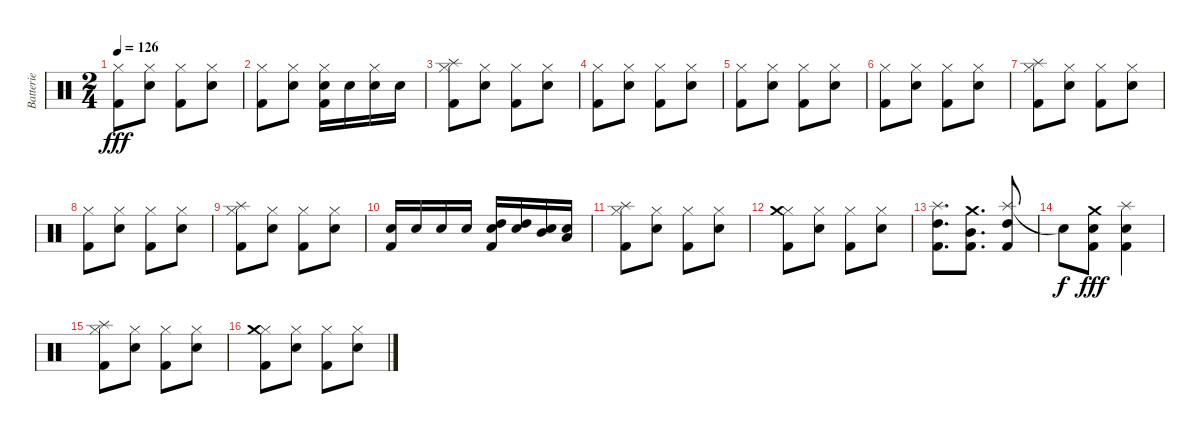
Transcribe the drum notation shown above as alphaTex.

\track ("Batterie" "Batterie") {instrument percussion}
\staff {score}
\articulation defaults
\ts (2 4)
\tempo 126
\clef neutral
\ks c
("Hi-Hat (closed)" "Kick (hit) 2").8{dy fff} ("Hi-Hat (closed)" "Electric Snare (hit)").8 ("Hi-Hat (closed)" "Kick (hit) 2").8 ("Hi-Hat (closed)" "Electric Snare (hit)").8 |
("Hi-Hat (closed)" "Kick (hit) 2").8 ("Hi-Hat (closed)" "Electric Snare (hit)").8 ("Electric Snare (hit)" "Hi-Hat (closed)" "Kick (hit) 2").16 "Electric Snare (hit)".16 ("Electric Snare (hit)" "Hi-Hat (closed)").16 "Electric Snare (hit)".16 |
("Splash (hit)" "Hi-Hat (closed)" "Kick (hit) 2").8 ("Hi-Hat (closed)" "Electric Snare (hit)").8 ("Hi-Hat (closed)" "Kick (hit) 2").8 ("Hi-Hat (closed)" "Electric Snare (hit)").8 |
("Hi-Hat (closed)" "Kick (hit) 2").8 ("Hi-Hat (closed)" "Electric Snare (hit)").8 ("Hi-Hat (closed)" "Kick (hit) 2").8 ("Hi-Hat (closed)" "Electric Snare (hit)").8 |
("Hi-Hat (closed)" "Kick (hit) 2").8 ("Hi-Hat (closed)" "Electric Snare (hit)").8 ("Hi-Hat (closed)" "Kick (hit) 2").8 ("Hi-Hat (closed)" "Electric Snare (hit)").8 |
("Hi-Hat (closed)" "Kick (hit) 2").8 ("Hi-Hat (closed)" "Electric Snare (hit)").8 ("Hi-Hat (closed)" "Kick (hit) 2").8 ("Hi-Hat (closed)" "Electric Snare (hit)").8 |
("Splash (hit)" "Hi-Hat (closed)" "Kick (hit) 2").8 ("Hi-Hat (closed)" "Electric Snare (hit)").8 ("Hi-Hat (closed)" "Kick (hit) 2").8 ("Hi-Hat (closed)" "Electric Snare (hit)").8 |
("Kick (hit) 2" "Hi-Hat (closed)").8 ("Hi-Hat (closed)" "Electric Snare (hit)").8 ("Hi-Hat (closed)" "Kick (hit) 2").8 ("Hi-Hat (closed)" "Electric Snare (hit)").8 |
("Splash (hit)" "Hi-Hat (closed)" "Kick (hit) 2").8 ("Hi-Hat (closed)" "Electric Snare (hit)").8 ("Hi-Hat (closed)" "Kick (hit) 2").8 ("Hi-Hat (closed)" "Electric Snare (hit)").8 |
("Kick (hit) 2" "Electric Snare (hit)").16 "Electric Snare (hit)".16 "Electric Snare (hit)".16 "Electric Snare (hit)".16 ("Kick (hit) 2" "High Tom (hit)" "Electric Snare (hit)").16 ("High Tom (hit)" "Electric Snare (hit)").16 ("Mid Tom (hit)" "Electric Snare (hit)").16 ("Low Tom (hit)" "Electric Snare (hit)").16 |
("Hi-Hat (closed)" "Kick (hit) 2" "Splash (hit)").8 ("Hi-Hat (closed)" "Electric Snare (hit)").8 ("Hi-Hat (closed)" "Kick (hit) 2").8 ("Hi-Hat (closed)" "Electric Snare (hit)").8 |
("Kick (hit) 2" "Hi-Hat (closed)" "Crash medium (hit)").8 ("Electric Snare (hit)" "Hi-Hat (closed)").8 ("Kick (hit) 2" "Hi-Hat (closed)").8 ("Electric Snare (hit)" "Hi-Hat (closed)").8 |
("Splash (hit)" "High Tom (hit)" "Kick (hit) 2").8{d} ("Crash medium (hit)" "Mid Tom (hit)" "Kick (hit) 2").8{d} ("Splash (hit)" "High Tom (hit)" "Kick (hit) 2").8 |
"Snare (hit)"{t}.8{dy f} ("Crash medium (hit)" "Kick (hit) 2" "Electric Snare (hit)").8{dy fff} ("Splash (hit)" "Kick (hit) 2" "Electric Snare (hit)").4 |
("Hi-Hat (closed)" "Kick (hit) 2" "Splash (hit)").8 ("Hi-Hat (closed)" "Electric Snare (hit)").8 ("Hi-Hat (closed)" "Kick (hit) 2").8 ("Hi-Hat (closed)" "Electric Snare (hit)").8 |
("Kick (hit) 2" "Hi-Hat (closed)" "Crash medium (hit)").8 ("Electric Snare (hit)" "Hi-Hat (closed)").8 ("Kick (hit) 2" "Hi-Hat (closed)").8 ("Electric Snare (hit)" "Hi-Hat (closed)").8
